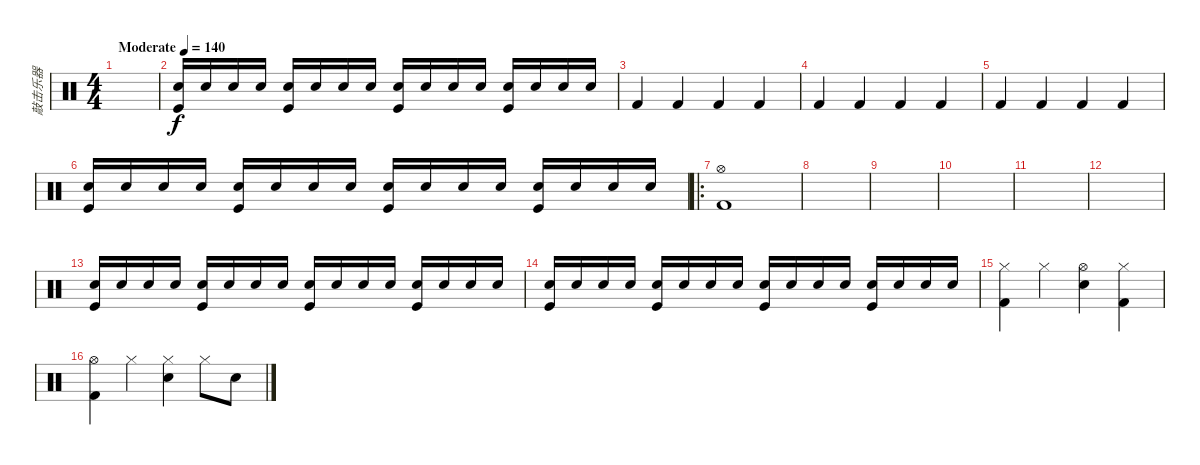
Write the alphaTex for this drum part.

\track ("敲击乐器" "敲击乐器") {instrument percussion}
\staff {score}
\articulation defaults
\ts (4 4)
\tempo (140 "Moderate")
\clef neutral
\ks c
|
("Snare (hit) 2" "Kick (hit)").16 "Snare (hit) 2".16 "Snare (hit) 2".16 "Snare (hit) 2".16 ("Snare (hit) 2" "Kick (hit)").16 "Snare (hit) 2".16 "Snare (hit) 2".16 "Snare (hit) 2".16 ("Snare (hit) 2" "Kick (hit)").16 "Snare (hit) 2".16 "Snare (hit) 2".16 "Snare (hit) 2".16 ("Snare (hit) 2" "Kick (hit)").16 "Snare (hit) 2".16 "Snare (hit) 2".16 "Snare (hit) 2".16 |
"Kick (hit) 2".4 "Kick (hit) 2".4 "Kick (hit) 2".4 "Kick (hit) 2".4 |
"Kick (hit) 2".4 "Kick (hit) 2".4 "Kick (hit) 2".4 "Kick (hit) 2".4 |
"Kick (hit) 2".4 "Kick (hit) 2".4 "Kick (hit) 2".4 "Kick (hit) 2".4 |
("Snare (hit) 2" "Kick (hit)").16 "Snare (hit) 2".16 "Snare (hit) 2".16 "Snare (hit) 2".16 ("Snare (hit) 2" "Kick (hit)").16 "Snare (hit) 2".16 "Snare (hit) 2".16 "Snare (hit) 2".16 ("Snare (hit) 2" "Kick (hit)").16 "Snare (hit) 2".16 "Snare (hit) 2".16 "Snare (hit) 2".16 ("Snare (hit) 2" "Kick (hit)").16 "Snare (hit) 2".16 "Snare (hit) 2".16 "Snare (hit) 2".16 |
\ro
("Hi-Hat (open)" "Kick (hit) 2").1 |
|
|
|
|
|
("Snare (hit) 2" "Kick (hit)").16 "Snare (hit) 2".16 "Snare (hit) 2".16 "Snare (hit) 2".16 ("Snare (hit) 2" "Kick (hit)").16 "Snare (hit) 2".16 "Snare (hit) 2".16 "Snare (hit) 2".16 ("Snare (hit) 2" "Kick (hit)").16 "Snare (hit) 2".16 "Snare (hit) 2".16 "Snare (hit) 2".16 ("Snare (hit) 2" "Kick (hit)").16 "Snare (hit) 2".16 "Snare (hit) 2".16 "Snare (hit) 2".16 |
("Snare (hit) 2" "Kick (hit)").16 "Snare (hit) 2".16 "Snare (hit) 2".16 "Snare (hit) 2".16 ("Snare (hit) 2" "Kick (hit)").16 "Snare (hit) 2".16 "Snare (hit) 2".16 "Snare (hit) 2".16 ("Snare (hit) 2" "Kick (hit)").16 "Snare (hit) 2".16 "Snare (hit) 2".16 "Snare (hit) 2".16 ("Snare (hit) 2" "Kick (hit)").16 "Snare (hit) 2".16 "Snare (hit) 2".16 "Snare (hit) 2".16 |
("Hi-Hat (closed)" "Kick (hit) 2").4 "Hi-Hat (closed)".4 ("Hi-Hat (open)" "Snare (hit) 2").4 ("Hi-Hat (closed)" "Kick (hit) 2").4 |
("Hi-Hat (open)" "Kick (hit) 2").4 "Hi-Hat (closed)".4 ("Hi-Hat (closed)" "Snare (hit) 2").4 "Hi-Hat (closed)".8 "Snare (hit) 2".8
